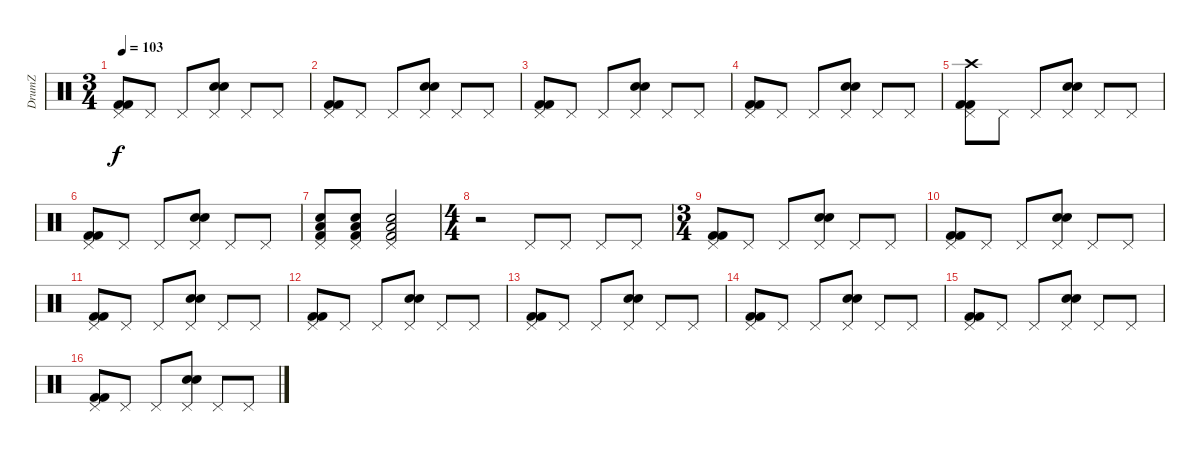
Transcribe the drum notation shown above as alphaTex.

\track ("DrumZ" "DrumZ") {instrument percussion}
\staff {score}
\articulation defaults
\ts (3 4)
\tempo 103
\clef neutral
\ks c
("Pedal Hi-Hat (hit)" "Kick (hit) 2" "Kick (hit) 2").8{dy f} "Pedal Hi-Hat (hit)".8 "Pedal Hi-Hat (hit)".8 ("Pedal Hi-Hat (hit)" "Electric Snare (hit)" "Electric Snare (hit)").8 "Pedal Hi-Hat (hit)".8 "Pedal Hi-Hat (hit)".8 |
("Pedal Hi-Hat (hit)" "Kick (hit) 2" "Kick (hit) 2").8 "Pedal Hi-Hat (hit)".8 "Pedal Hi-Hat (hit)".8 ("Pedal Hi-Hat (hit)" "Electric Snare (hit)" "Electric Snare (hit)").8 "Pedal Hi-Hat (hit)".8 "Pedal Hi-Hat (hit)".8 |
("Pedal Hi-Hat (hit)" "Kick (hit) 2" "Kick (hit) 2").8 "Pedal Hi-Hat (hit)".8 "Pedal Hi-Hat (hit)".8 ("Pedal Hi-Hat (hit)" "Electric Snare (hit)" "Electric Snare (hit)").8 "Pedal Hi-Hat (hit)".8 "Pedal Hi-Hat (hit)".8 |
("Pedal Hi-Hat (hit)" "Kick (hit) 2" "Kick (hit) 2").8 "Pedal Hi-Hat (hit)".8 "Pedal Hi-Hat (hit)".8 ("Pedal Hi-Hat (hit)" "Electric Snare (hit)" "Electric Snare (hit)").8 "Pedal Hi-Hat (hit)".8 "Pedal Hi-Hat (hit)".8 |
("Pedal Hi-Hat (hit)" "Crash high (hit)" "Kick (hit) 2" "Kick (hit) 2").8 "Pedal Hi-Hat (hit)".8 "Pedal Hi-Hat (hit)".8 ("Pedal Hi-Hat (hit)" "Electric Snare (hit)" "Electric Snare (hit)").8 "Pedal Hi-Hat (hit)".8 "Pedal Hi-Hat (hit)".8 |
("Pedal Hi-Hat (hit)" "Kick (hit) 2" "Kick (hit) 2").8 "Pedal Hi-Hat (hit)".8 "Pedal Hi-Hat (hit)".8 ("Pedal Hi-Hat (hit)" "Electric Snare (hit)" "Electric Snare (hit)").8 "Pedal Hi-Hat (hit)".8 "Pedal Hi-Hat (hit)".8 |
("Low Tom (hit)" "Pedal Hi-Hat (hit)" "Snare (hit) 2" "Kick (hit) 2").8 ("Low Tom (hit)" "Pedal Hi-Hat (hit)" "Snare (hit) 2" "Kick (hit) 2").8 ("Low Tom (hit)" "Pedal Hi-Hat (hit)" "Snare (hit) 2" "Kick (hit) 2").2 |
\ts (4 4)
r.2 "Pedal Hi-Hat (hit)".8 "Pedal Hi-Hat (hit)".8 "Pedal Hi-Hat (hit)".8 "Pedal Hi-Hat (hit)".8 |
\ts (3 4)
("Pedal Hi-Hat (hit)" "Kick (hit) 2" "Kick (hit) 2").8 "Pedal Hi-Hat (hit)".8 "Pedal Hi-Hat (hit)".8 ("Pedal Hi-Hat (hit)" "Electric Snare (hit)" "Electric Snare (hit)").8 "Pedal Hi-Hat (hit)".8 "Pedal Hi-Hat (hit)".8 |
("Pedal Hi-Hat (hit)" "Kick (hit) 2" "Kick (hit) 2").8 "Pedal Hi-Hat (hit)".8 "Pedal Hi-Hat (hit)".8 ("Pedal Hi-Hat (hit)" "Electric Snare (hit)" "Electric Snare (hit)").8 "Pedal Hi-Hat (hit)".8 "Pedal Hi-Hat (hit)".8 |
("Pedal Hi-Hat (hit)" "Kick (hit) 2" "Kick (hit) 2").8 "Pedal Hi-Hat (hit)".8 "Pedal Hi-Hat (hit)".8 ("Pedal Hi-Hat (hit)" "Electric Snare (hit)" "Electric Snare (hit)").8 "Pedal Hi-Hat (hit)".8 "Pedal Hi-Hat (hit)".8 |
("Pedal Hi-Hat (hit)" "Kick (hit) 2" "Kick (hit) 2").8 "Pedal Hi-Hat (hit)".8 "Pedal Hi-Hat (hit)".8 ("Pedal Hi-Hat (hit)" "Electric Snare (hit)" "Electric Snare (hit)").8 "Pedal Hi-Hat (hit)".8 "Pedal Hi-Hat (hit)".8 |
("Pedal Hi-Hat (hit)" "Kick (hit) 2" "Kick (hit) 2").8 "Pedal Hi-Hat (hit)".8 "Pedal Hi-Hat (hit)".8 ("Pedal Hi-Hat (hit)" "Electric Snare (hit)" "Electric Snare (hit)").8 "Pedal Hi-Hat (hit)".8 "Pedal Hi-Hat (hit)".8 |
("Pedal Hi-Hat (hit)" "Kick (hit) 2" "Kick (hit) 2").8 "Pedal Hi-Hat (hit)".8 "Pedal Hi-Hat (hit)".8 ("Pedal Hi-Hat (hit)" "Electric Snare (hit)" "Electric Snare (hit)").8 "Pedal Hi-Hat (hit)".8 "Pedal Hi-Hat (hit)".8 |
("Pedal Hi-Hat (hit)" "Kick (hit) 2" "Kick (hit) 2").8 "Pedal Hi-Hat (hit)".8 "Pedal Hi-Hat (hit)".8 ("Pedal Hi-Hat (hit)" "Electric Snare (hit)" "Electric Snare (hit)").8 "Pedal Hi-Hat (hit)".8 "Pedal Hi-Hat (hit)".8 |
("Pedal Hi-Hat (hit)" "Kick (hit) 2" "Kick (hit) 2").8 "Pedal Hi-Hat (hit)".8 "Pedal Hi-Hat (hit)".8 ("Pedal Hi-Hat (hit)" "Electric Snare (hit)" "Electric Snare (hit)").8 "Pedal Hi-Hat (hit)".8 "Pedal Hi-Hat (hit)".8
